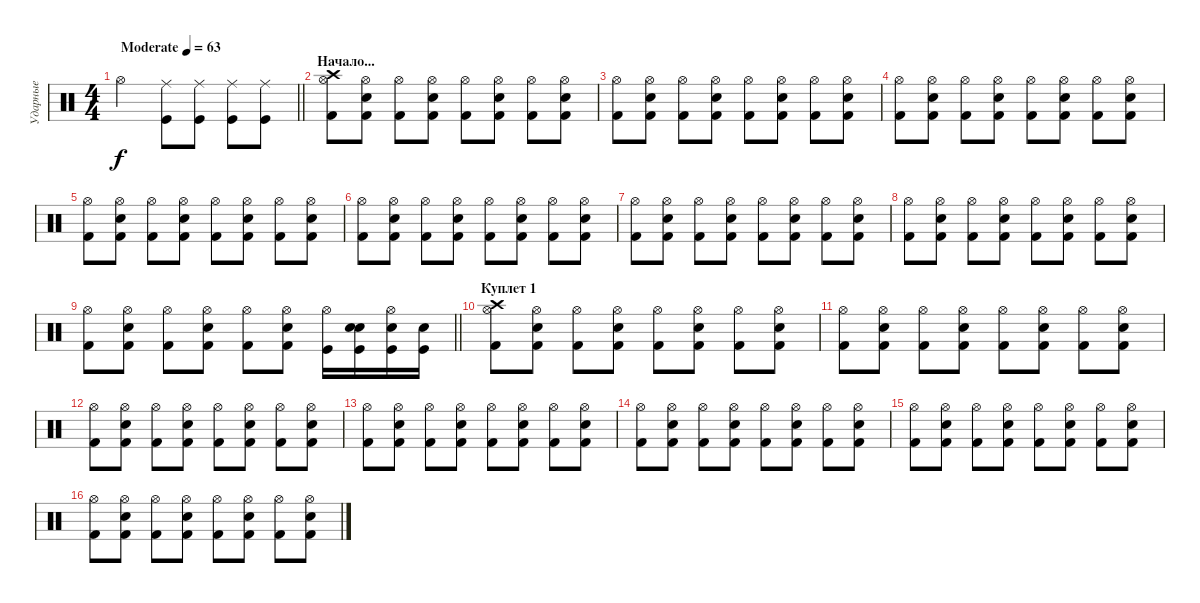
\track ("Ударные" "Ударные") {instrument percussion}
\staff {score}
\articulation defaults
\ts (4 4)
\tempo (63 "Moderate")
\clef neutral
\barLineRight lightlight
\ks c "Hi-Hat (open)".2{dy f}
("Kick (hit)" "Ride (middle)").8 ("Kick (hit)" "Ride (middle)").8 ("Kick (hit)" "Ride (middle)").8 ("Kick (hit)" "Ride (middle)").8 |
\section ("" "Начало...")
("Crash high (hit)" "Hi-Hat (open)" "Kick (hit) 2").8 ("Hi-Hat (open)" "Snare (hit) 2" "Kick (hit) 2").8 ("Hi-Hat (open)" "Kick (hit) 2").8 ("Hi-Hat (open)" "Snare (hit) 2" "Kick (hit) 2").8 ("Hi-Hat (open)" "Kick (hit) 2").8 ("Hi-Hat (open)" "Snare (hit) 2" "Kick (hit) 2").8 ("Hi-Hat (open)" "Kick (hit) 2").8 ("Hi-Hat (open)" "Snare (hit) 2" "Kick (hit) 2").8 |
("Hi-Hat (open)" "Kick (hit) 2").8 ("Hi-Hat (open)" "Snare (hit) 2" "Kick (hit) 2").8 ("Hi-Hat (open)" "Kick (hit) 2").8 ("Hi-Hat (open)" "Snare (hit) 2" "Kick (hit) 2").8 ("Hi-Hat (open)" "Kick (hit) 2").8 ("Hi-Hat (open)" "Snare (hit) 2" "Kick (hit) 2").8 ("Hi-Hat (open)" "Kick (hit) 2").8 ("Hi-Hat (open)" "Snare (hit) 2" "Kick (hit) 2").8 |
("Hi-Hat (open)" "Kick (hit) 2").8 ("Hi-Hat (open)" "Snare (hit) 2" "Kick (hit) 2").8 ("Hi-Hat (open)" "Kick (hit) 2").8 ("Hi-Hat (open)" "Snare (hit) 2" "Kick (hit) 2").8 ("Hi-Hat (open)" "Kick (hit) 2").8 ("Hi-Hat (open)" "Snare (hit) 2" "Kick (hit) 2").8 ("Hi-Hat (open)" "Kick (hit) 2").8 ("Hi-Hat (open)" "Snare (hit) 2" "Kick (hit) 2").8 |
("Hi-Hat (open)" "Kick (hit) 2").8 ("Hi-Hat (open)" "Snare (hit) 2" "Kick (hit) 2").8 ("Hi-Hat (open)" "Kick (hit) 2").8 ("Hi-Hat (open)" "Snare (hit) 2" "Kick (hit) 2").8 ("Hi-Hat (open)" "Kick (hit) 2").8 ("Hi-Hat (open)" "Snare (hit) 2" "Kick (hit) 2").8 ("Hi-Hat (open)" "Kick (hit) 2").8 ("Hi-Hat (open)" "Snare (hit) 2" "Kick (hit) 2").8 |
("Hi-Hat (open)" "Kick (hit) 2").8 ("Hi-Hat (open)" "Snare (hit) 2" "Kick (hit) 2").8 ("Hi-Hat (open)" "Kick (hit) 2").8 ("Hi-Hat (open)" "Snare (hit) 2" "Kick (hit) 2").8 ("Hi-Hat (open)" "Kick (hit) 2").8 ("Hi-Hat (open)" "Snare (hit) 2" "Kick (hit) 2").8 ("Hi-Hat (open)" "Kick (hit) 2").8 ("Hi-Hat (open)" "Snare (hit) 2" "Kick (hit) 2").8 |
("Hi-Hat (open)" "Kick (hit) 2").8 ("Hi-Hat (open)" "Snare (hit) 2" "Kick (hit) 2").8 ("Hi-Hat (open)" "Kick (hit) 2").8 ("Hi-Hat (open)" "Snare (hit) 2" "Kick (hit) 2").8 ("Hi-Hat (open)" "Kick (hit) 2").8 ("Hi-Hat (open)" "Snare (hit) 2" "Kick (hit) 2").8 ("Hi-Hat (open)" "Kick (hit) 2").8 ("Hi-Hat (open)" "Snare (hit) 2" "Kick (hit) 2").8 |
("Hi-Hat (open)" "Kick (hit) 2").8 ("Hi-Hat (open)" "Snare (hit) 2" "Kick (hit) 2").8 ("Hi-Hat (open)" "Kick (hit) 2").8 ("Hi-Hat (open)" "Snare (hit) 2" "Kick (hit) 2").8 ("Hi-Hat (open)" "Kick (hit) 2").8 ("Hi-Hat (open)" "Snare (hit) 2" "Kick (hit) 2").8 ("Hi-Hat (open)" "Kick (hit) 2").8 ("Hi-Hat (open)" "Snare (hit) 2" "Kick (hit) 2").8 |
\barLineRight lightlight
("Hi-Hat (open)" "Kick (hit) 2").8 ("Hi-Hat (open)" "Snare (hit) 2" "Kick (hit) 2").8 ("Hi-Hat (open)" "Kick (hit) 2").8 ("Hi-Hat (open)" "Snare (hit) 2" "Kick (hit) 2").8 ("Hi-Hat (open)" "Kick (hit) 2").8 ("Hi-Hat (open)" "Snare (hit) 2" "Kick (hit) 2").8 ("Hi-Hat (open)" "Kick (hit)").16 ("Snare (hit)" "Snare (hit)" "Kick (hit)").16 ("Hi-Hat (open)" "Snare (hit) 2" "Kick (hit)").16 ("Snare (hit)" "Kick (hit)").16 |
\section ("" "Куплет 1")
("Crash high (hit)" "Hi-Hat (open)" "Kick (hit) 2").8 ("Hi-Hat (open)" "Snare (hit) 2" "Kick (hit) 2").8 ("Hi-Hat (open)" "Kick (hit) 2").8 ("Hi-Hat (open)" "Snare (hit) 2" "Kick (hit) 2").8 ("Hi-Hat (open)" "Kick (hit) 2").8 ("Hi-Hat (open)" "Snare (hit) 2" "Kick (hit) 2").8 ("Hi-Hat (open)" "Kick (hit) 2").8 ("Hi-Hat (open)" "Snare (hit) 2" "Kick (hit) 2").8 |
("Hi-Hat (open)" "Kick (hit) 2").8 ("Hi-Hat (open)" "Snare (hit) 2" "Kick (hit) 2").8 ("Hi-Hat (open)" "Kick (hit) 2").8 ("Hi-Hat (open)" "Snare (hit) 2" "Kick (hit) 2").8 ("Hi-Hat (open)" "Kick (hit) 2").8 ("Hi-Hat (open)" "Snare (hit) 2" "Kick (hit) 2").8 ("Hi-Hat (open)" "Kick (hit) 2").8 ("Hi-Hat (open)" "Snare (hit) 2" "Kick (hit) 2").8 |
("Hi-Hat (open)" "Kick (hit) 2").8 ("Hi-Hat (open)" "Snare (hit) 2" "Kick (hit) 2").8 ("Hi-Hat (open)" "Kick (hit) 2").8 ("Hi-Hat (open)" "Snare (hit) 2" "Kick (hit) 2").8 ("Hi-Hat (open)" "Kick (hit) 2").8 ("Hi-Hat (open)" "Snare (hit) 2" "Kick (hit) 2").8 ("Hi-Hat (open)" "Kick (hit) 2").8 ("Hi-Hat (open)" "Snare (hit) 2" "Kick (hit) 2").8 |
("Hi-Hat (open)" "Kick (hit) 2").8 ("Hi-Hat (open)" "Snare (hit) 2" "Kick (hit) 2").8 ("Hi-Hat (open)" "Kick (hit) 2").8 ("Hi-Hat (open)" "Snare (hit) 2" "Kick (hit) 2").8 ("Hi-Hat (open)" "Kick (hit) 2").8 ("Hi-Hat (open)" "Snare (hit) 2" "Kick (hit) 2").8 ("Hi-Hat (open)" "Kick (hit) 2").8 ("Hi-Hat (open)" "Snare (hit) 2" "Kick (hit) 2").8 |
("Hi-Hat (open)" "Kick (hit) 2").8 ("Hi-Hat (open)" "Snare (hit) 2" "Kick (hit) 2").8 ("Hi-Hat (open)" "Kick (hit) 2").8 ("Hi-Hat (open)" "Snare (hit) 2" "Kick (hit) 2").8 ("Hi-Hat (open)" "Kick (hit) 2").8 ("Hi-Hat (open)" "Snare (hit) 2" "Kick (hit) 2").8 ("Hi-Hat (open)" "Kick (hit) 2").8 ("Hi-Hat (open)" "Snare (hit) 2" "Kick (hit) 2").8 |
("Hi-Hat (open)" "Kick (hit) 2").8 ("Hi-Hat (open)" "Snare (hit) 2" "Kick (hit) 2").8 ("Hi-Hat (open)" "Kick (hit) 2").8 ("Hi-Hat (open)" "Snare (hit) 2" "Kick (hit) 2").8 ("Hi-Hat (open)" "Kick (hit) 2").8 ("Hi-Hat (open)" "Snare (hit) 2" "Kick (hit) 2").8 ("Hi-Hat (open)" "Kick (hit) 2").8 ("Hi-Hat (open)" "Snare (hit) 2" "Kick (hit) 2").8 |
("Hi-Hat (open)" "Kick (hit) 2").8 ("Hi-Hat (open)" "Snare (hit) 2" "Kick (hit) 2").8 ("Hi-Hat (open)" "Kick (hit) 2").8 ("Hi-Hat (open)" "Snare (hit) 2" "Kick (hit) 2").8 ("Hi-Hat (open)" "Kick (hit) 2").8 ("Hi-Hat (open)" "Snare (hit) 2" "Kick (hit) 2").8 ("Hi-Hat (open)" "Kick (hit) 2").8 ("Hi-Hat (open)" "Snare (hit) 2" "Kick (hit) 2").8
